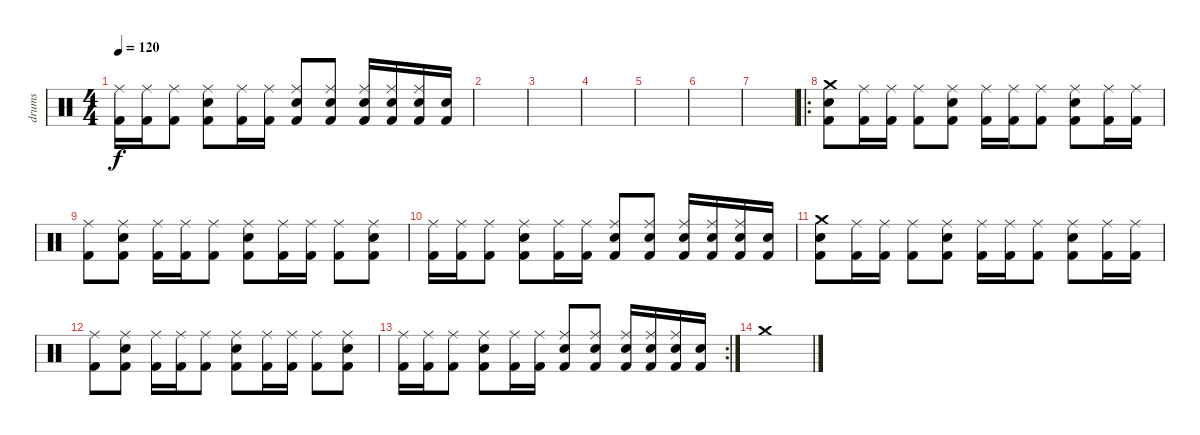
\track ("drums" "drums") {instrument percussion}
\staff {score}
\articulation defaults
\ts (4 4)
\tempo 120
\clef neutral
\ks c
("Kick (hit) 2" "Ride (middle)").16{dy f} ("Kick (hit) 2" "Ride (middle)").16 ("Kick (hit) 2" "Ride (middle)").8 ("Kick (hit) 2" "Snare (hit) 2" "Ride (middle)").8 ("Kick (hit) 2" "Ride (middle)").16 ("Kick (hit) 2" "Ride (middle)").16 ("Kick (hit) 2" "Snare (hit) 2" "Ride (middle)").8 ("Kick (hit) 2" "Snare (hit) 2" "Ride (middle)").8 ("Kick (hit) 2" "Snare (hit) 2" "Ride (middle)").16 ("Kick (hit) 2" "Snare (hit) 2" "Ride (middle)").16 ("Kick (hit) 2" "Snare (hit) 2" "Ride (middle)").16 ("Kick (hit) 2" "Snare (hit) 2").16 |
|
|
|
|
|
|
\ro
("Kick (hit) 2" "Snare (hit) 2" "Crash medium (hit)").8 ("Kick (hit) 2" "Ride (middle)").16 ("Kick (hit) 2" "Ride (middle)").16 ("Kick (hit) 2" "Ride (middle)").8 ("Kick (hit) 2" "Snare (hit) 2" "Ride (middle)").8 ("Kick (hit) 2" "Ride (middle)").16 ("Kick (hit) 2" "Ride (middle)").16 ("Kick (hit) 2" "Ride (middle)").8 ("Kick (hit) 2" "Snare (hit) 2" "Ride (middle)").8 ("Kick (hit) 2" "Ride (middle)").16 ("Kick (hit) 2" "Ride (middle)").16 |
("Kick (hit) 2" "Ride (middle)").8 ("Kick (hit) 2" "Snare (hit) 2" "Ride (middle)").8 ("Kick (hit) 2" "Ride (middle)").16 ("Kick (hit) 2" "Ride (middle)").16 ("Kick (hit) 2" "Ride (middle)").8 ("Kick (hit) 2" "Snare (hit) 2" "Ride (middle)").8 ("Kick (hit) 2" "Ride (middle)").16 ("Kick (hit) 2" "Ride (middle)").16 ("Kick (hit) 2" "Ride (middle)").8 ("Kick (hit) 2" "Snare (hit) 2" "Ride (middle)").8 |
("Kick (hit) 2" "Ride (middle)").16 ("Kick (hit) 2" "Ride (middle)").16 ("Kick (hit) 2" "Ride (middle)").8 ("Kick (hit) 2" "Snare (hit) 2" "Ride (middle)").8 ("Kick (hit) 2" "Ride (middle)").16 ("Kick (hit) 2" "Ride (middle)").16 ("Kick (hit) 2" "Snare (hit) 2" "Ride (middle)").8 ("Kick (hit) 2" "Snare (hit) 2" "Ride (middle)").8 ("Kick (hit) 2" "Snare (hit) 2" "Ride (middle)").16 ("Kick (hit) 2" "Snare (hit) 2" "Ride (middle)").16 ("Kick (hit) 2" "Snare (hit) 2" "Ride (middle)").16 ("Kick (hit) 2" "Snare (hit) 2").16 |
("Kick (hit) 2" "Snare (hit) 2" "Crash medium (hit)").8 ("Kick (hit) 2" "Ride (middle)").16 ("Kick (hit) 2" "Ride (middle)").16 ("Kick (hit) 2" "Ride (middle)").8 ("Kick (hit) 2" "Snare (hit) 2" "Ride (middle)").8 ("Kick (hit) 2" "Ride (middle)").16 ("Kick (hit) 2" "Ride (middle)").16 ("Kick (hit) 2" "Ride (middle)").8 ("Kick (hit) 2" "Snare (hit) 2" "Ride (middle)").8 ("Kick (hit) 2" "Ride (middle)").16 ("Kick (hit) 2" "Ride (middle)").16 |
("Kick (hit) 2" "Ride (middle)").8 ("Kick (hit) 2" "Snare (hit) 2" "Ride (middle)").8 ("Kick (hit) 2" "Ride (middle)").16 ("Kick (hit) 2" "Ride (middle)").16 ("Kick (hit) 2" "Ride (middle)").8 ("Kick (hit) 2" "Snare (hit) 2" "Ride (middle)").8 ("Kick (hit) 2" "Ride (middle)").16 ("Kick (hit) 2" "Ride (middle)").16 ("Kick (hit) 2" "Ride (middle)").8 ("Kick (hit) 2" "Snare (hit) 2" "Ride (middle)").8 |
\rc 2
("Kick (hit) 2" "Ride (middle)").16 ("Kick (hit) 2" "Ride (middle)").16 ("Kick (hit) 2" "Ride (middle)").8 ("Kick (hit) 2" "Snare (hit) 2" "Ride (middle)").8 ("Kick (hit) 2" "Ride (middle)").16 ("Kick (hit) 2" "Ride (middle)").16 ("Kick (hit) 2" "Snare (hit) 2" "Ride (middle)").8 ("Kick (hit) 2" "Snare (hit) 2" "Ride (middle)").8 ("Kick (hit) 2" "Snare (hit) 2" "Ride (middle)").16 ("Kick (hit) 2" "Snare (hit) 2" "Ride (middle)").16 ("Kick (hit) 2" "Snare (hit) 2" "Ride (middle)").16 ("Kick (hit) 2" "Snare (hit) 2").16 |
"Crash medium (hit)".1
